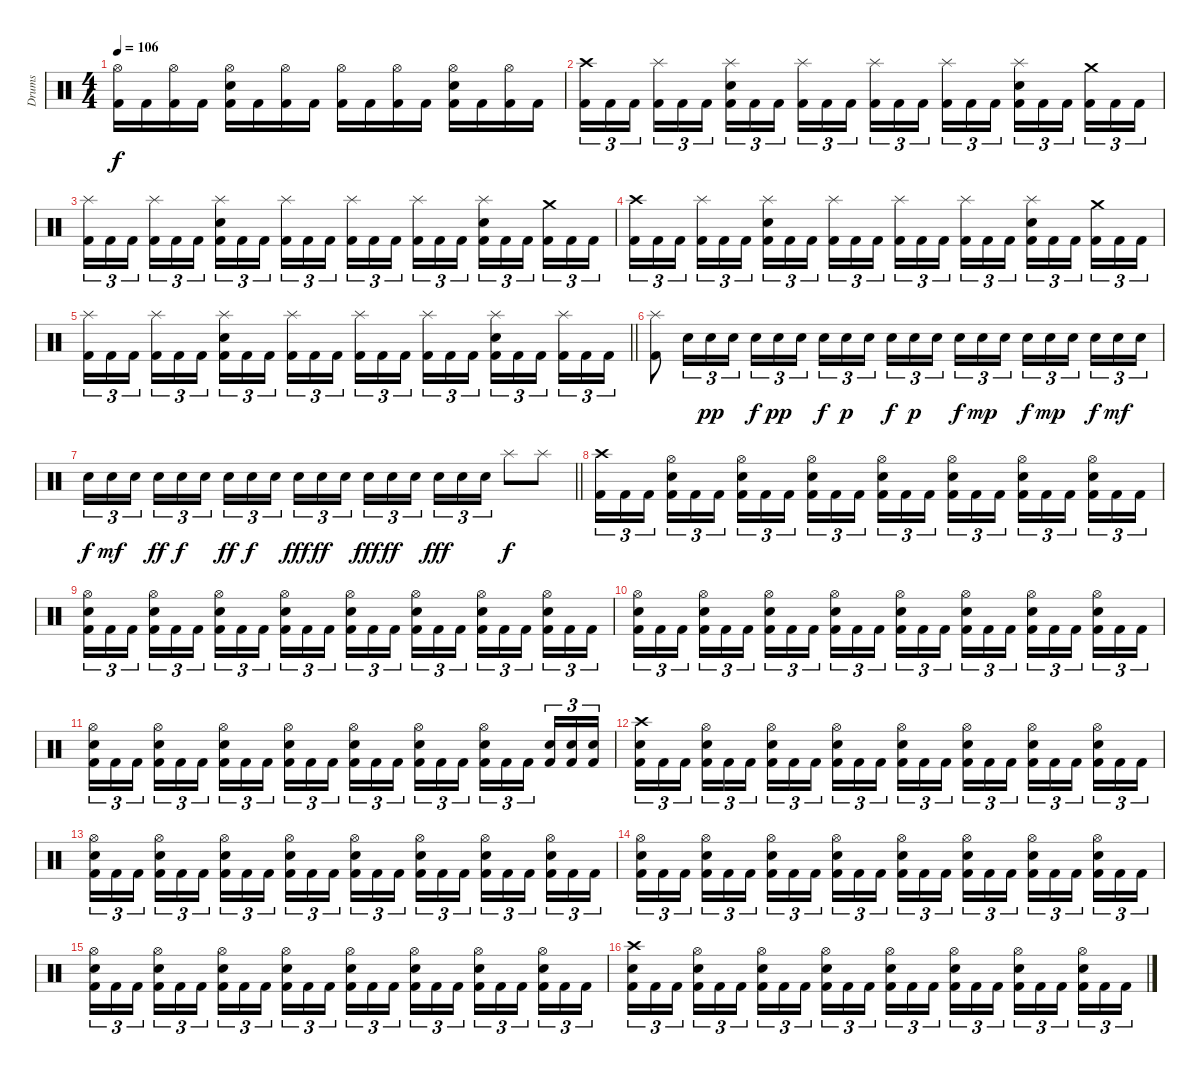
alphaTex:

\track ("Drums" "Drums") {instrument percussion}
\staff {score}
\articulation defaults
\ts (4 4)
\tempo 106
\clef neutral
\ks c
("Hi-Hat (open)" "Kick (hit) 2").16{dy f} "Kick (hit) 2".16 ("Hi-Hat (open)" "Kick (hit) 2").16 "Kick (hit) 2".16 ("Hi-Hat (open)" "Electric Snare (hit)" "Kick (hit) 2").16 "Kick (hit) 2".16 ("Hi-Hat (open)" "Kick (hit) 2").16 "Kick (hit) 2".16 ("Hi-Hat (open)" "Kick (hit) 2").16 "Kick (hit) 2".16 ("Hi-Hat (open)" "Kick (hit) 2").16 "Kick (hit) 2".16 ("Hi-Hat (open)" "Electric Snare (hit)" "Kick (hit) 2").16 "Kick (hit) 2".16 ("Hi-Hat (open)" "Kick (hit) 2").16 "Kick (hit) 2".16 |
("Crash high (hit)" "Kick (hit) 2").16{tu (3 2)} "Kick (hit) 2".16{tu (3 2)} "Kick (hit) 2".16{tu (3 2)} ("Splash (hit)" "Kick (hit) 2").16{tu (3 2)} "Kick (hit) 2".16{tu (3 2)} "Kick (hit) 2".16{tu (3 2)} ("Splash (hit)" "Electric Snare (hit)" "Kick (hit) 2").16{tu (3 2)} "Kick (hit) 2".16{tu (3 2)} "Kick (hit) 2".16{tu (3 2)} ("Splash (hit)" "Kick (hit) 2").16{tu (3 2)} "Kick (hit) 2".16{tu (3 2)} "Kick (hit) 2".16{tu (3 2)} ("Splash (hit)" "Kick (hit) 2").16{tu (3 2)} "Kick (hit) 2".16{tu (3 2)} "Kick (hit) 2".16{tu (3 2)} ("Splash (hit)" "Kick (hit) 2").16{tu (3 2)} "Kick (hit) 2".16{tu (3 2)} "Kick (hit) 2".16{tu (3 2)} ("Splash (hit)" "Electric Snare (hit)" "Kick (hit) 2").16{tu (3 2)} "Kick (hit) 2".16{tu (3 2)} "Kick (hit) 2".16{tu (3 2)} ("Crash medium (hit)" "Kick (hit) 2").16{tu (3 2)} "Kick (hit) 2".16{tu (3 2)} "Kick (hit) 2".16{tu (3 2)} |
("Splash (hit)" "Kick (hit) 2").16{tu (3 2)} "Kick (hit) 2".16{tu (3 2)} "Kick (hit) 2".16{tu (3 2)} ("Splash (hit)" "Kick (hit) 2").16{tu (3 2)} "Kick (hit) 2".16{tu (3 2)} "Kick (hit) 2".16{tu (3 2)} ("Splash (hit)" "Electric Snare (hit)" "Kick (hit) 2").16{tu (3 2)} "Kick (hit) 2".16{tu (3 2)} "Kick (hit) 2".16{tu (3 2)} ("Splash (hit)" "Kick (hit) 2").16{tu (3 2)} "Kick (hit) 2".16{tu (3 2)} "Kick (hit) 2".16{tu (3 2)} ("Splash (hit)" "Kick (hit) 2").16{tu (3 2)} "Kick (hit) 2".16{tu (3 2)} "Kick (hit) 2".16{tu (3 2)} ("Splash (hit)" "Kick (hit) 2").16{tu (3 2)} "Kick (hit) 2".16{tu (3 2)} "Kick (hit) 2".16{tu (3 2)} ("Splash (hit)" "Electric Snare (hit)" "Kick (hit) 2").16{tu (3 2)} "Kick (hit) 2".16{tu (3 2)} "Kick (hit) 2".16{tu (3 2)} ("Crash medium (hit)" "Kick (hit) 2").16{tu (3 2)} "Kick (hit) 2".16{tu (3 2)} "Kick (hit) 2".16{tu (3 2)} |
("Crash high (hit)" "Kick (hit) 2").16{tu (3 2)} "Kick (hit) 2".16{tu (3 2)} "Kick (hit) 2".16{tu (3 2)} ("Splash (hit)" "Kick (hit) 2").16{tu (3 2)} "Kick (hit) 2".16{tu (3 2)} "Kick (hit) 2".16{tu (3 2)} ("Splash (hit)" "Electric Snare (hit)" "Kick (hit) 2").16{tu (3 2)} "Kick (hit) 2".16{tu (3 2)} "Kick (hit) 2".16{tu (3 2)} ("Splash (hit)" "Kick (hit) 2").16{tu (3 2)} "Kick (hit) 2".16{tu (3 2)} "Kick (hit) 2".16{tu (3 2)} ("Splash (hit)" "Kick (hit) 2").16{tu (3 2)} "Kick (hit) 2".16{tu (3 2)} "Kick (hit) 2".16{tu (3 2)} ("Splash (hit)" "Kick (hit) 2").16{tu (3 2)} "Kick (hit) 2".16{tu (3 2)} "Kick (hit) 2".16{tu (3 2)} ("Splash (hit)" "Electric Snare (hit)" "Kick (hit) 2").16{tu (3 2)} "Kick (hit) 2".16{tu (3 2)} "Kick (hit) 2".16{tu (3 2)} ("Crash medium (hit)" "Kick (hit) 2").16{tu (3 2)} "Kick (hit) 2".16{tu (3 2)} "Kick (hit) 2".16{tu (3 2)} |
\barLineRight lightlight
("Splash (hit)" "Kick (hit) 2").16{tu (3 2)} "Kick (hit) 2".16{tu (3 2)} "Kick (hit) 2".16{tu (3 2)} ("Splash (hit)" "Kick (hit) 2").16{tu (3 2)} "Kick (hit) 2".16{tu (3 2)} "Kick (hit) 2".16{tu (3 2)} ("Splash (hit)" "Electric Snare (hit)" "Kick (hit) 2").16{tu (3 2)} "Kick (hit) 2".16{tu (3 2)} "Kick (hit) 2".16{tu (3 2)} ("Splash (hit)" "Kick (hit) 2").16{tu (3 2)} "Kick (hit) 2".16{tu (3 2)} "Kick (hit) 2".16{tu (3 2)} ("Splash (hit)" "Kick (hit) 2").16{tu (3 2)} "Kick (hit) 2".16{tu (3 2)} "Kick (hit) 2".16{tu (3 2)} ("Splash (hit)" "Kick (hit) 2").16{tu (3 2)} "Kick (hit) 2".16{tu (3 2)} "Kick (hit) 2".16{tu (3 2)} ("Splash (hit)" "Electric Snare (hit)" "Kick (hit) 2").16{tu (3 2)} "Kick (hit) 2".16{tu (3 2)} "Kick (hit) 2".16{tu (3 2)} ("Splash (hit)" "Kick (hit) 2").16{tu (3 2)} "Kick (hit) 2".16{tu (3 2)} "Kick (hit) 2".16{tu (3 2)} |
\section ("" "")
("Splash (hit)" "Kick (hit) 2").8 "Electric Snare (hit)".16{tu (3 2)} "Electric Snare (hit)".16{tu (3 2) dy pp} "Electric Snare (hit)".16{tu (3 2)} "Electric Snare (hit)".16{tu (3 2) dy f} "Electric Snare (hit)".16{tu (3 2) dy pp} "Electric Snare (hit)".16{tu (3 2)} "Electric Snare (hit)".16{tu (3 2) dy f} "Electric Snare (hit)".16{tu (3 2) dy p} "Electric Snare (hit)".16{tu (3 2)} "Electric Snare (hit)".16{tu (3 2) dy f} "Electric Snare (hit)".16{tu (3 2) dy p} "Electric Snare (hit)".16{tu (3 2)} "Electric Snare (hit)".16{tu (3 2) dy f} "Electric Snare (hit)".16{tu (3 2) dy mp} "Electric Snare (hit)".16{tu (3 2)} "Electric Snare (hit)".16{tu (3 2) dy f} "Electric Snare (hit)".16{tu (3 2) dy mp} "Electric Snare (hit)".16{tu (3 2)} "Electric Snare (hit)".16{tu (3 2) dy f} "Electric Snare (hit)".16{tu (3 2) dy mf} "Electric Snare (hit)".16{tu (3 2)} |
\barLineRight lightlight "Electric Snare (hit)".16{tu (3 2) dy f} "Electric Snare (hit)".16{tu (3 2) dy mf} "Electric Snare (hit)".16{tu (3 2)} "Electric Snare (hit)".16{tu (3 2) dy ff} "Electric Snare (hit)".16{tu (3 2) dy f} "Electric Snare (hit)".16{tu (3 2)} "Electric Snare (hit)".16{tu (3 2) dy ff} "Electric Snare (hit)".16{tu (3 2) dy f} "Electric Snare (hit)".16{tu (3 2)} "Electric Snare (hit)".16{tu (3 2) dy fff} "Electric Snare (hit)".16{tu (3 2) dy ff} "Electric Snare (hit)".16{tu (3 2)} "Electric Snare (hit)".16{tu (3 2) dy fff} "Electric Snare (hit)".16{tu (3 2) dy ff} "Electric Snare (hit)".16{tu (3 2)} "Electric Snare (hit)".16{tu (3 2) dy fff} "Electric Snare (hit)".16{tu (3 2)} "Electric Snare (hit)".16{tu (3 2)} "Splash (hit)".8{dy f} "Splash (hit)".8
|
\section ("" "")
("Crash high (hit)" "Kick (hit) 2").16{tu (3 2)} "Kick (hit) 2".16{tu (3 2)} "Kick (hit) 2".16{tu (3 2)} ("Hi-Hat (open)" "Electric Snare (hit)" "Kick (hit) 2").16{tu (3 2)} "Kick (hit) 2".16{tu (3 2)} "Kick (hit) 2".16{tu (3 2)} ("Hi-Hat (open)" "Electric Snare (hit)" "Kick (hit) 2").16{tu (3 2)} "Kick (hit) 2".16{tu (3 2)} "Kick (hit) 2".16{tu (3 2)} ("Hi-Hat (open)" "Electric Snare (hit)" "Kick (hit) 2").16{tu (3 2)} "Kick (hit) 2".16{tu (3 2)} "Kick (hit) 2".16{tu (3 2)} ("Hi-Hat (open)" "Electric Snare (hit)" "Kick (hit) 2").16{tu (3 2)} "Kick (hit) 2".16{tu (3 2)} "Kick (hit) 2".16{tu (3 2)} ("Hi-Hat (open)" "Electric Snare (hit)" "Kick (hit) 2").16{tu (3 2)} "Kick (hit) 2".16{tu (3 2)} "Kick (hit) 2".16{tu (3 2)} ("Hi-Hat (open)" "Electric Snare (hit)" "Kick (hit) 2").16{tu (3 2)} "Kick (hit) 2".16{tu (3 2)} "Kick (hit) 2".16{tu (3 2)} ("Hi-Hat (open)" "Electric Snare (hit)" "Kick (hit) 2").16{tu (3 2)} "Kick (hit) 2".16{tu (3 2)} "Kick (hit) 2".16{tu (3 2)} |
("Hi-Hat (open)" "Electric Snare (hit)" "Kick (hit) 2").16{tu (3 2)} "Kick (hit) 2".16{tu (3 2)} "Kick (hit) 2".16{tu (3 2)} ("Hi-Hat (open)" "Electric Snare (hit)" "Kick (hit) 2").16{tu (3 2)} "Kick (hit) 2".16{tu (3 2)} "Kick (hit) 2".16{tu (3 2)} ("Hi-Hat (open)" "Electric Snare (hit)" "Kick (hit) 2").16{tu (3 2)} "Kick (hit) 2".16{tu (3 2)} "Kick (hit) 2".16{tu (3 2)} ("Hi-Hat (open)" "Electric Snare (hit)" "Kick (hit) 2").16{tu (3 2)} "Kick (hit) 2".16{tu (3 2)} "Kick (hit) 2".16{tu (3 2)} ("Hi-Hat (open)" "Electric Snare (hit)" "Kick (hit) 2").16{tu (3 2)} "Kick (hit) 2".16{tu (3 2)} "Kick (hit) 2".16{tu (3 2)} ("Hi-Hat (open)" "Electric Snare (hit)" "Kick (hit) 2").16{tu (3 2)} "Kick (hit) 2".16{tu (3 2)} "Kick (hit) 2".16{tu (3 2)} ("Hi-Hat (open)" "Electric Snare (hit)" "Kick (hit) 2").16{tu (3 2)} "Kick (hit) 2".16{tu (3 2)} "Kick (hit) 2".16{tu (3 2)} ("Hi-Hat (open)" "Electric Snare (hit)" "Kick (hit) 2").16{tu (3 2)} "Kick (hit) 2".16{tu (3 2)} "Kick (hit) 2".16{tu (3 2)} |
("Hi-Hat (open)" "Electric Snare (hit)" "Kick (hit) 2").16{tu (3 2)} "Kick (hit) 2".16{tu (3 2)} "Kick (hit) 2".16{tu (3 2)} ("Hi-Hat (open)" "Electric Snare (hit)" "Kick (hit) 2").16{tu (3 2)} "Kick (hit) 2".16{tu (3 2)} "Kick (hit) 2".16{tu (3 2)} ("Hi-Hat (open)" "Electric Snare (hit)" "Kick (hit) 2").16{tu (3 2)} "Kick (hit) 2".16{tu (3 2)} "Kick (hit) 2".16{tu (3 2)} ("Hi-Hat (open)" "Electric Snare (hit)" "Kick (hit) 2").16{tu (3 2)} "Kick (hit) 2".16{tu (3 2)} "Kick (hit) 2".16{tu (3 2)} ("Hi-Hat (open)" "Electric Snare (hit)" "Kick (hit) 2").16{tu (3 2)} "Kick (hit) 2".16{tu (3 2)} "Kick (hit) 2".16{tu (3 2)} ("Hi-Hat (open)" "Electric Snare (hit)" "Kick (hit) 2").16{tu (3 2)} "Kick (hit) 2".16{tu (3 2)} "Kick (hit) 2".16{tu (3 2)} ("Hi-Hat (open)" "Electric Snare (hit)" "Kick (hit) 2").16{tu (3 2)} "Kick (hit) 2".16{tu (3 2)} "Kick (hit) 2".16{tu (3 2)} ("Hi-Hat (open)" "Electric Snare (hit)" "Kick (hit) 2").16{tu (3 2)} "Kick (hit) 2".16{tu (3 2)} "Kick (hit) 2".16{tu (3 2)} |
("Hi-Hat (open)" "Electric Snare (hit)" "Kick (hit) 2").16{tu (3 2)} "Kick (hit) 2".16{tu (3 2)} "Kick (hit) 2".16{tu (3 2)} ("Hi-Hat (open)" "Electric Snare (hit)" "Kick (hit) 2").16{tu (3 2)} "Kick (hit) 2".16{tu (3 2)} "Kick (hit) 2".16{tu (3 2)} ("Hi-Hat (open)" "Electric Snare (hit)" "Kick (hit) 2").16{tu (3 2)} "Kick (hit) 2".16{tu (3 2)} "Kick (hit) 2".16{tu (3 2)} ("Hi-Hat (open)" "Electric Snare (hit)" "Kick (hit) 2").16{tu (3 2)} "Kick (hit) 2".16{tu (3 2)} "Kick (hit) 2".16{tu (3 2)} ("Hi-Hat (open)" "Electric Snare (hit)" "Kick (hit) 2").16{tu (3 2)} "Kick (hit) 2".16{tu (3 2)} "Kick (hit) 2".16{tu (3 2)} ("Hi-Hat (open)" "Electric Snare (hit)" "Kick (hit) 2").16{tu (3 2)} "Kick (hit) 2".16{tu (3 2)} "Kick (hit) 2".16{tu (3 2)} ("Hi-Hat (open)" "Electric Snare (hit)" "Kick (hit) 2").16{tu (3 2)} "Kick (hit) 2".16{tu (3 2)} "Kick (hit) 2".16{tu (3 2)} ("Electric Snare (hit)" "Kick (hit) 2").16{tu (3 2)} ("Electric Snare (hit)" "Kick (hit) 2").16{tu (3 2)} ("Electric Snare (hit)" "Kick (hit) 2").16{tu (3 2)} |
("Crash high (hit)" "Electric Snare (hit)" "Kick (hit) 2").16{tu (3 2)} "Kick (hit) 2".16{tu (3 2)} "Kick (hit) 2".16{tu (3 2)} ("Hi-Hat (open)" "Electric Snare (hit)" "Kick (hit) 2").16{tu (3 2)} "Kick (hit) 2".16{tu (3 2)} "Kick (hit) 2".16{tu (3 2)} ("Hi-Hat (open)" "Electric Snare (hit)" "Kick (hit) 2").16{tu (3 2)} "Kick (hit) 2".16{tu (3 2)} "Kick (hit) 2".16{tu (3 2)} ("Hi-Hat (open)" "Electric Snare (hit)" "Kick (hit) 2").16{tu (3 2)} "Kick (hit) 2".16{tu (3 2)} "Kick (hit) 2".16{tu (3 2)} ("Hi-Hat (open)" "Electric Snare (hit)" "Kick (hit) 2").16{tu (3 2)} "Kick (hit) 2".16{tu (3 2)} "Kick (hit) 2".16{tu (3 2)} ("Hi-Hat (open)" "Electric Snare (hit)" "Kick (hit) 2").16{tu (3 2)} "Kick (hit) 2".16{tu (3 2)} "Kick (hit) 2".16{tu (3 2)} ("Hi-Hat (open)" "Electric Snare (hit)" "Kick (hit) 2").16{tu (3 2)} "Kick (hit) 2".16{tu (3 2)} "Kick (hit) 2".16{tu (3 2)} ("Hi-Hat (open)" "Electric Snare (hit)" "Kick (hit) 2").16{tu (3 2)} "Kick (hit) 2".16{tu (3 2)} "Kick (hit) 2".16{tu (3 2)} |
("Hi-Hat (open)" "Electric Snare (hit)" "Kick (hit) 2").16{tu (3 2)} "Kick (hit) 2".16{tu (3 2)} "Kick (hit) 2".16{tu (3 2)} ("Hi-Hat (open)" "Electric Snare (hit)" "Kick (hit) 2").16{tu (3 2)} "Kick (hit) 2".16{tu (3 2)} "Kick (hit) 2".16{tu (3 2)} ("Hi-Hat (open)" "Electric Snare (hit)" "Kick (hit) 2").16{tu (3 2)} "Kick (hit) 2".16{tu (3 2)} "Kick (hit) 2".16{tu (3 2)} ("Hi-Hat (open)" "Electric Snare (hit)" "Kick (hit) 2").16{tu (3 2)} "Kick (hit) 2".16{tu (3 2)} "Kick (hit) 2".16{tu (3 2)} ("Hi-Hat (open)" "Electric Snare (hit)" "Kick (hit) 2").16{tu (3 2)} "Kick (hit) 2".16{tu (3 2)} "Kick (hit) 2".16{tu (3 2)} ("Hi-Hat (open)" "Electric Snare (hit)" "Kick (hit) 2").16{tu (3 2)} "Kick (hit) 2".16{tu (3 2)} "Kick (hit) 2".16{tu (3 2)} ("Hi-Hat (open)" "Electric Snare (hit)" "Kick (hit) 2").16{tu (3 2)} "Kick (hit) 2".16{tu (3 2)} "Kick (hit) 2".16{tu (3 2)} ("Hi-Hat (open)" "Electric Snare (hit)" "Kick (hit) 2").16{tu (3 2)} "Kick (hit) 2".16{tu (3 2)} "Kick (hit) 2".16{tu (3 2)} |
("Hi-Hat (open)" "Electric Snare (hit)" "Kick (hit) 2").16{tu (3 2)} "Kick (hit) 2".16{tu (3 2)} "Kick (hit) 2".16{tu (3 2)} ("Hi-Hat (open)" "Electric Snare (hit)" "Kick (hit) 2").16{tu (3 2)} "Kick (hit) 2".16{tu (3 2)} "Kick (hit) 2".16{tu (3 2)} ("Hi-Hat (open)" "Electric Snare (hit)" "Kick (hit) 2").16{tu (3 2)} "Kick (hit) 2".16{tu (3 2)} "Kick (hit) 2".16{tu (3 2)} ("Hi-Hat (open)" "Electric Snare (hit)" "Kick (hit) 2").16{tu (3 2)} "Kick (hit) 2".16{tu (3 2)} "Kick (hit) 2".16{tu (3 2)} ("Hi-Hat (open)" "Electric Snare (hit)" "Kick (hit) 2").16{tu (3 2)} "Kick (hit) 2".16{tu (3 2)} "Kick (hit) 2".16{tu (3 2)} ("Hi-Hat (open)" "Electric Snare (hit)" "Kick (hit) 2").16{tu (3 2)} "Kick (hit) 2".16{tu (3 2)} "Kick (hit) 2".16{tu (3 2)} ("Hi-Hat (open)" "Electric Snare (hit)" "Kick (hit) 2").16{tu (3 2)} "Kick (hit) 2".16{tu (3 2)} "Kick (hit) 2".16{tu (3 2)} ("Hi-Hat (open)" "Electric Snare (hit)" "Kick (hit) 2").16{tu (3 2)} "Kick (hit) 2".16{tu (3 2)} "Kick (hit) 2".16{tu (3 2)} |
("Hi-Hat (open)" "Electric Snare (hit)" "Kick (hit) 2").16{tu (3 2)} "Kick (hit) 2".16{tu (3 2)} "Kick (hit) 2".16{tu (3 2)} ("Hi-Hat (open)" "Electric Snare (hit)" "Kick (hit) 2").16{tu (3 2)} "Kick (hit) 2".16{tu (3 2)} "Kick (hit) 2".16{tu (3 2)} ("Hi-Hat (open)" "Electric Snare (hit)" "Kick (hit) 2").16{tu (3 2)} "Kick (hit) 2".16{tu (3 2)} "Kick (hit) 2".16{tu (3 2)} ("Hi-Hat (open)" "Electric Snare (hit)" "Kick (hit) 2").16{tu (3 2)} "Kick (hit) 2".16{tu (3 2)} "Kick (hit) 2".16{tu (3 2)} ("Hi-Hat (open)" "Electric Snare (hit)" "Kick (hit) 2").16{tu (3 2)} "Kick (hit) 2".16{tu (3 2)} "Kick (hit) 2".16{tu (3 2)} ("Hi-Hat (open)" "Electric Snare (hit)" "Kick (hit) 2").16{tu (3 2)} "Kick (hit) 2".16{tu (3 2)} "Kick (hit) 2".16{tu (3 2)} ("Hi-Hat (open)" "Electric Snare (hit)" "Kick (hit) 2").16{tu (3 2)} "Kick (hit) 2".16{tu (3 2)} "Kick (hit) 2".16{tu (3 2)} ("Hi-Hat (open)" "Electric Snare (hit)" "Kick (hit) 2").16{tu (3 2)} "Kick (hit) 2".16{tu (3 2)} "Kick (hit) 2".16{tu (3 2)} |
("Crash high (hit)" "Electric Snare (hit)" "Kick (hit) 2").16{tu (3 2)} "Kick (hit) 2".16{tu (3 2)} "Kick (hit) 2".16{tu (3 2)} ("Hi-Hat (open)" "Electric Snare (hit)" "Kick (hit) 2").16{tu (3 2)} "Kick (hit) 2".16{tu (3 2)} "Kick (hit) 2".16{tu (3 2)} ("Hi-Hat (open)" "Electric Snare (hit)" "Kick (hit) 2").16{tu (3 2)} "Kick (hit) 2".16{tu (3 2)} "Kick (hit) 2".16{tu (3 2)} ("Hi-Hat (open)" "Electric Snare (hit)" "Kick (hit) 2").16{tu (3 2)} "Kick (hit) 2".16{tu (3 2)} "Kick (hit) 2".16{tu (3 2)} ("Hi-Hat (open)" "Electric Snare (hit)" "Kick (hit) 2").16{tu (3 2)} "Kick (hit) 2".16{tu (3 2)} "Kick (hit) 2".16{tu (3 2)} ("Hi-Hat (open)" "Electric Snare (hit)" "Kick (hit) 2").16{tu (3 2)} "Kick (hit) 2".16{tu (3 2)} "Kick (hit) 2".16{tu (3 2)} ("Hi-Hat (open)" "Electric Snare (hit)" "Kick (hit) 2").16{tu (3 2)} "Kick (hit) 2".16{tu (3 2)} "Kick (hit) 2".16{tu (3 2)} ("Hi-Hat (open)" "Electric Snare (hit)" "Kick (hit) 2").16{tu (3 2)} "Kick (hit) 2".16{tu (3 2)} "Kick (hit) 2".16{tu (3 2)}
